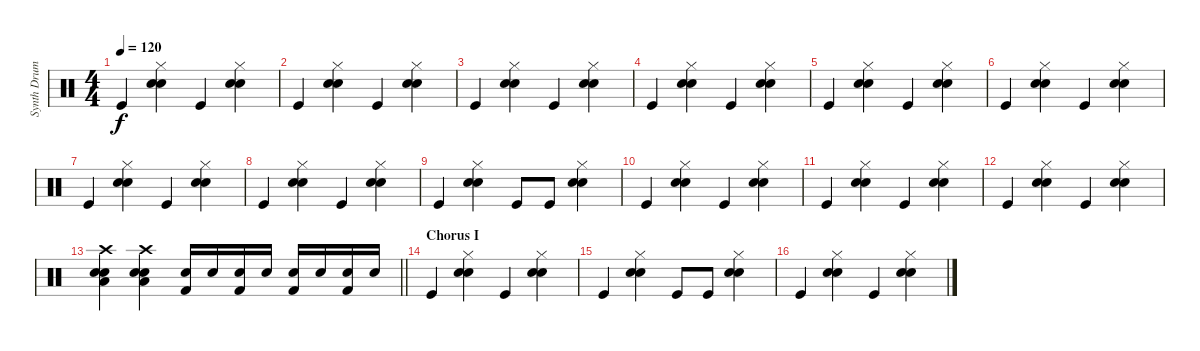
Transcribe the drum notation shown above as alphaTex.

\track ("Synth Drums" "Synth Drum") {instrument percussion}
\staff {score}
\articulation defaults
\ts (4 4)
\tempo 120
\clef neutral
\ks c "Kick (hit)".4{dy f}
("Hi-Hat (closed)" "Snare (hit) 2" "Hand Clap (hit)").4 "Kick (hit)".4 ("Hi-Hat (closed)" "Snare (hit) 2" "Hand Clap (hit)").4 |
"Kick (hit)".4 ("Hi-Hat (closed)" "Snare (hit) 2" "Hand Clap (hit)").4 "Kick (hit)".4 ("Hi-Hat (closed)" "Snare (hit) 2" "Hand Clap (hit)").4 |
"Kick (hit)".4 ("Hi-Hat (closed)" "Snare (hit) 2" "Hand Clap (hit)").4 "Kick (hit)".4 ("Hi-Hat (closed)" "Snare (hit) 2" "Hand Clap (hit)").4 |
"Kick (hit)".4 ("Hi-Hat (closed)" "Snare (hit) 2" "Hand Clap (hit)").4 "Kick (hit)".4 ("Hi-Hat (closed)" "Snare (hit) 2" "Hand Clap (hit)").4 |
"Kick (hit)".4 ("Hi-Hat (closed)" "Snare (hit) 2" "Hand Clap (hit)").4 "Kick (hit)".4 ("Hi-Hat (closed)" "Snare (hit) 2" "Hand Clap (hit)").4 |
"Kick (hit)".4 ("Hi-Hat (closed)" "Snare (hit) 2" "Hand Clap (hit)").4 "Kick (hit)".4 ("Hi-Hat (closed)" "Snare (hit) 2" "Hand Clap (hit)").4 |
"Kick (hit)".4 ("Hi-Hat (closed)" "Snare (hit) 2" "Hand Clap (hit)").4 "Kick (hit)".4 ("Hi-Hat (closed)" "Snare (hit) 2" "Hand Clap (hit)").4 |
"Kick (hit)".4 ("Hi-Hat (closed)" "Snare (hit) 2" "Hand Clap (hit)").4 "Kick (hit)".4 ("Hi-Hat (closed)" "Snare (hit) 2" "Hand Clap (hit)").4 |
"Kick (hit)".4 ("Hi-Hat (closed)" "Snare (hit) 2" "Hand Clap (hit)").4 "Kick (hit)".8 "Kick (hit)".8 ("Hi-Hat (closed)" "Snare (hit) 2" "Hand Clap (hit)").4 |
"Kick (hit)".4 ("Hi-Hat (closed)" "Snare (hit) 2" "Hand Clap (hit)").4 "Kick (hit)".4 ("Hi-Hat (closed)" "Snare (hit) 2" "Hand Clap (hit)").4 |
"Kick (hit)".4 ("Hi-Hat (closed)" "Snare (hit) 2" "Hand Clap (hit)").4 "Kick (hit)".4 ("Hi-Hat (closed)" "Snare (hit) 2" "Hand Clap (hit)").4 |
"Kick (hit)".4 ("Hi-Hat (closed)" "Snare (hit) 2" "Hand Clap (hit)").4 "Kick (hit)".4 ("Hi-Hat (closed)" "Snare (hit) 2" "Hand Clap (hit)").4 |
\barLineRight lightlight
("Crash high (hit)" "Electric Snare (hit)" "Snare (hit) 2" "Low Floor Tom (hit)").4 ("Crash high (hit)" "Electric Snare (hit)" "Snare (hit) 2" "Low Floor Tom (hit)").4 ("Electric Snare (hit)" "Kick (hit) 2").16 "Electric Snare (hit)".16 ("Electric Snare (hit)" "Kick (hit) 2").16 "Electric Snare (hit)".16 ("Electric Snare (hit)" "Kick (hit) 2").16 "Electric Snare (hit)".16 ("Electric Snare (hit)" "Kick (hit) 2").16 "Electric Snare (hit)".16 |
\section ("" "Chorus I")
"Kick (hit)".4 ("Hi-Hat (closed)" "Snare (hit) 2" "Hand Clap (hit)").4 "Kick (hit)".4 ("Hi-Hat (closed)" "Snare (hit) 2" "Hand Clap (hit)").4 |
"Kick (hit)".4 ("Hi-Hat (closed)" "Snare (hit) 2" "Hand Clap (hit)").4 "Kick (hit)".8 "Kick (hit)".8 ("Hi-Hat (closed)" "Snare (hit) 2" "Hand Clap (hit)").4 |
"Kick (hit)".4 ("Hi-Hat (closed)" "Snare (hit) 2" "Hand Clap (hit)").4 "Kick (hit)".4 ("Hi-Hat (closed)" "Snare (hit) 2" "Hand Clap (hit)").4
